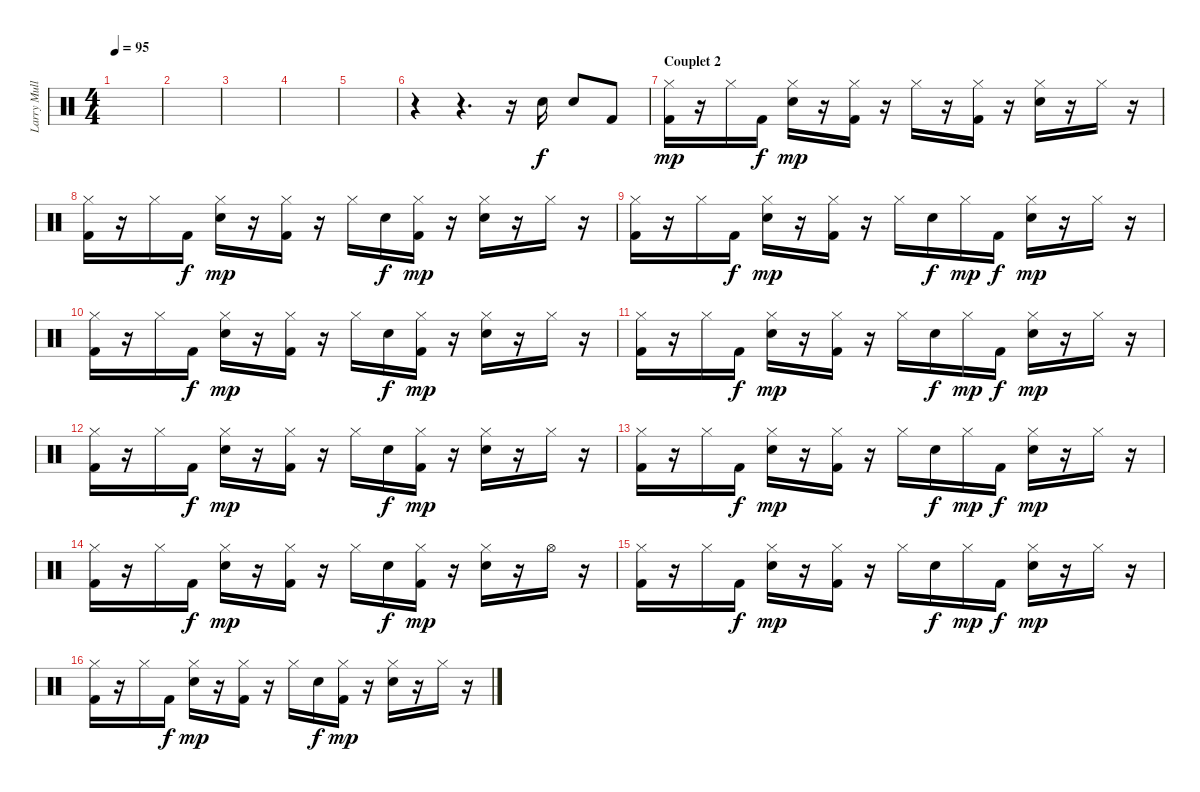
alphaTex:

\track ("Larry Mullen Jr" "Larry Mull") {instrument percussion}
\staff {score}
\articulation defaults
\ts (4 4)
\tempo 95
\clef neutral
\ks c
|
|
|
|
|
r.4 r.4{d} r.16 "Snare (hit) 2".16 "Snare (hit) 2".8 "Kick (hit) 2".8 |
\section ("" "Couplet 2")
("Hi-Hat (closed)" "Kick (hit) 2").16{dy mp} r.16 "Hi-Hat (closed)".16 "Kick (hit) 2".16{dy f} ("Hi-Hat (closed)" "Snare (hit) 2").16{dy mp} r.16 ("Hi-Hat (closed)" "Kick (hit) 2").16 r.16 "Hi-Hat (closed)".16 r.16 ("Hi-Hat (closed)" "Kick (hit) 2").16 r.16 ("Hi-Hat (closed)" "Snare (hit) 2").16 r.16 "Hi-Hat (closed)".16 r.16 |
("Hi-Hat (closed)" "Kick (hit) 2").16 r.16 "Hi-Hat (closed)".16 "Kick (hit) 2".16{dy f} ("Hi-Hat (closed)" "Snare (hit) 2").16{dy mp} r.16 ("Hi-Hat (closed)" "Kick (hit) 2").16 r.16 "Hi-Hat (closed)".16 "Snare (hit) 2".16{dy f} ("Hi-Hat (closed)" "Kick (hit) 2").16{dy mp} r.16 ("Hi-Hat (closed)" "Snare (hit) 2").16 r.16 "Hi-Hat (closed)".16 r.16 |
("Hi-Hat (closed)" "Kick (hit) 2").16 r.16 "Hi-Hat (closed)".16 "Kick (hit) 2".16{dy f} ("Hi-Hat (closed)" "Snare (hit) 2").16{dy mp} r.16 ("Hi-Hat (closed)" "Kick (hit) 2").16 r.16 "Hi-Hat (closed)".16 "Snare (hit) 2".16{dy f} "Hi-Hat (closed)".16{dy mp} "Kick (hit) 2".16{dy f} ("Hi-Hat (closed)" "Snare (hit) 2").16{dy mp} r.16 "Hi-Hat (closed)".16 r.16 |
("Hi-Hat (closed)" "Kick (hit) 2").16 r.16 "Hi-Hat (closed)".16 "Kick (hit) 2".16{dy f} ("Hi-Hat (closed)" "Snare (hit) 2").16{dy mp} r.16 ("Hi-Hat (closed)" "Kick (hit) 2").16 r.16 "Hi-Hat (closed)".16 "Snare (hit) 2".16{dy f} ("Hi-Hat (closed)" "Kick (hit) 2").16{dy mp} r.16 ("Hi-Hat (closed)" "Snare (hit) 2").16 r.16 "Hi-Hat (closed)".16 r.16 |
("Hi-Hat (closed)" "Kick (hit) 2").16 r.16 "Hi-Hat (closed)".16 "Kick (hit) 2".16{dy f} ("Hi-Hat (closed)" "Snare (hit) 2").16{dy mp} r.16 ("Hi-Hat (closed)" "Kick (hit) 2").16 r.16 "Hi-Hat (closed)".16 "Snare (hit) 2".16{dy f} "Hi-Hat (closed)".16{dy mp} "Kick (hit) 2".16{dy f} ("Hi-Hat (closed)" "Snare (hit) 2").16{dy mp} r.16 "Hi-Hat (closed)".16 r.16 |
("Hi-Hat (closed)" "Kick (hit) 2").16 r.16 "Hi-Hat (closed)".16 "Kick (hit) 2".16{dy f} ("Hi-Hat (closed)" "Snare (hit) 2").16{dy mp} r.16 ("Hi-Hat (closed)" "Kick (hit) 2").16 r.16 "Hi-Hat (closed)".16 "Snare (hit) 2".16{dy f} ("Hi-Hat (closed)" "Kick (hit) 2").16{dy mp} r.16 ("Hi-Hat (closed)" "Snare (hit) 2").16 r.16 "Hi-Hat (closed)".16 r.16 |
("Hi-Hat (closed)" "Kick (hit) 2").16 r.16 "Hi-Hat (closed)".16 "Kick (hit) 2".16{dy f} ("Hi-Hat (closed)" "Snare (hit) 2").16{dy mp} r.16 ("Hi-Hat (closed)" "Kick (hit) 2").16 r.16 "Hi-Hat (closed)".16 "Snare (hit) 2".16{dy f} "Hi-Hat (closed)".16{dy mp} "Kick (hit) 2".16{dy f} ("Hi-Hat (closed)" "Snare (hit) 2").16{dy mp} r.16 "Hi-Hat (closed)".16 r.16 |
("Hi-Hat (closed)" "Kick (hit) 2").16 r.16 "Hi-Hat (closed)".16 "Kick (hit) 2".16{dy f} ("Hi-Hat (closed)" "Snare (hit) 2").16{dy mp} r.16 ("Hi-Hat (closed)" "Kick (hit) 2").16 r.16 "Hi-Hat (closed)".16 "Snare (hit) 2".16{dy f} ("Hi-Hat (closed)" "Kick (hit) 2").16{dy mp} r.16 ("Hi-Hat (closed)" "Snare (hit) 2").16 r.16 "Hi-Hat (open)".16 r.16 |
("Hi-Hat (closed)" "Kick (hit) 2").16 r.16 "Hi-Hat (closed)".16 "Kick (hit) 2".16{dy f} ("Hi-Hat (closed)" "Snare (hit) 2").16{dy mp} r.16 ("Hi-Hat (closed)" "Kick (hit) 2").16 r.16 "Hi-Hat (closed)".16 "Snare (hit) 2".16{dy f} "Hi-Hat (closed)".16{dy mp} "Kick (hit) 2".16{dy f} ("Hi-Hat (closed)" "Snare (hit) 2").16{dy mp} r.16 "Hi-Hat (closed)".16 r.16 |
("Hi-Hat (closed)" "Kick (hit) 2").16 r.16 "Hi-Hat (closed)".16 "Kick (hit) 2".16{dy f} ("Hi-Hat (closed)" "Snare (hit) 2").16{dy mp} r.16 ("Hi-Hat (closed)" "Kick (hit) 2").16 r.16 "Hi-Hat (closed)".16 "Snare (hit) 2".16{dy f} ("Hi-Hat (closed)" "Kick (hit) 2").16{dy mp} r.16 ("Hi-Hat (closed)" "Snare (hit) 2").16 r.16 "Hi-Hat (closed)".16 r.16
